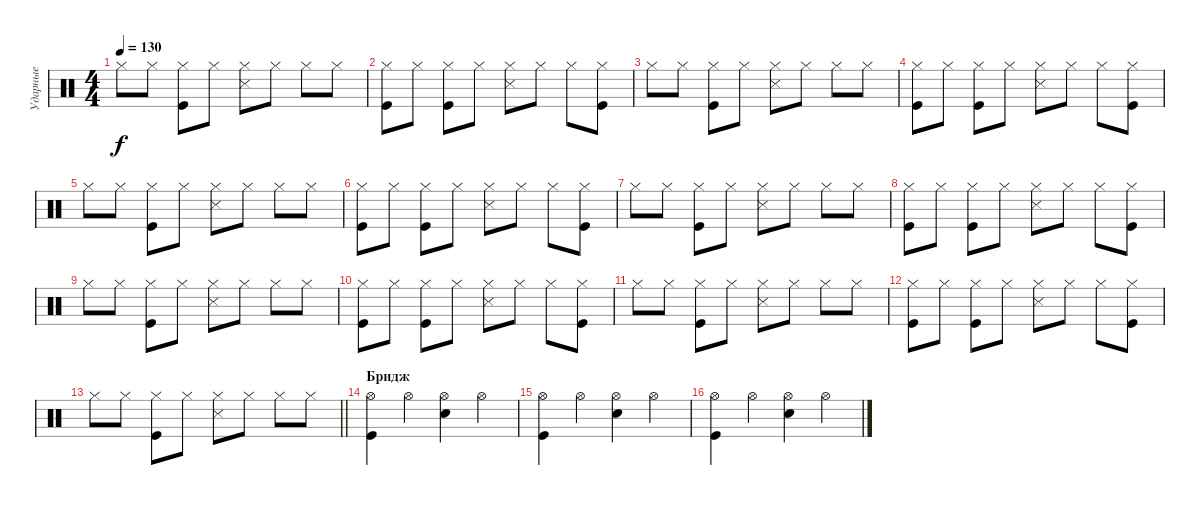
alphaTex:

\track ("Ударные" "Ударные") {instrument percussion}
\staff {score}
\articulation defaults
\ts (4 4)
\tempo 130
\clef neutral
\ks c "Hi-Hat (closed)".8{dy f} "Hi-Hat (closed)".8
("Hi-Hat (closed)" "Kick (hit)").8 "Hi-Hat (closed)".8 ("Hi-Hat (closed)" "Snare (side stick) 3").8 "Hi-Hat (closed)".8 "Hi-Hat (closed)".8 "Hi-Hat (closed)".8 |
("Hi-Hat (closed)" "Kick (hit)").8 "Hi-Hat (closed)".8 ("Hi-Hat (closed)" "Kick (hit)").8 "Hi-Hat (closed)".8 ("Hi-Hat (closed)" "Snare (side stick) 3").8 "Hi-Hat (closed)".8 "Hi-Hat (closed)".8 ("Hi-Hat (closed)" "Kick (hit)").8 |
"Hi-Hat (closed)".8 "Hi-Hat (closed)".8 ("Hi-Hat (closed)" "Kick (hit)").8 "Hi-Hat (closed)".8 ("Hi-Hat (closed)" "Snare (side stick) 3").8 "Hi-Hat (closed)".8 "Hi-Hat (closed)".8 "Hi-Hat (closed)".8 |
("Hi-Hat (closed)" "Kick (hit)").8 "Hi-Hat (closed)".8 ("Hi-Hat (closed)" "Kick (hit)").8 "Hi-Hat (closed)".8 ("Hi-Hat (closed)" "Snare (side stick) 3").8 "Hi-Hat (closed)".8 "Hi-Hat (closed)".8 ("Hi-Hat (closed)" "Kick (hit)").8 |
"Hi-Hat (closed)".8 "Hi-Hat (closed)".8 ("Hi-Hat (closed)" "Kick (hit)").8 "Hi-Hat (closed)".8 ("Hi-Hat (closed)" "Snare (side stick) 3").8 "Hi-Hat (closed)".8 "Hi-Hat (closed)".8 "Hi-Hat (closed)".8 |
("Hi-Hat (closed)" "Kick (hit)").8 "Hi-Hat (closed)".8 ("Hi-Hat (closed)" "Kick (hit)").8 "Hi-Hat (closed)".8 ("Hi-Hat (closed)" "Snare (side stick) 3").8 "Hi-Hat (closed)".8 "Hi-Hat (closed)".8 ("Hi-Hat (closed)" "Kick (hit)").8 |
"Hi-Hat (closed)".8 "Hi-Hat (closed)".8 ("Hi-Hat (closed)" "Kick (hit)").8 "Hi-Hat (closed)".8 ("Hi-Hat (closed)" "Snare (side stick) 3").8 "Hi-Hat (closed)".8 "Hi-Hat (closed)".8 "Hi-Hat (closed)".8 |
("Hi-Hat (closed)" "Kick (hit)").8 "Hi-Hat (closed)".8 ("Hi-Hat (closed)" "Kick (hit)").8 "Hi-Hat (closed)".8 ("Hi-Hat (closed)" "Snare (side stick) 3").8 "Hi-Hat (closed)".8 "Hi-Hat (closed)".8 ("Hi-Hat (closed)" "Kick (hit)").8 |
"Hi-Hat (closed)".8 "Hi-Hat (closed)".8 ("Hi-Hat (closed)" "Kick (hit)").8 "Hi-Hat (closed)".8 ("Hi-Hat (closed)" "Snare (side stick) 3").8 "Hi-Hat (closed)".8 "Hi-Hat (closed)".8 "Hi-Hat (closed)".8 |
("Hi-Hat (closed)" "Kick (hit)").8 "Hi-Hat (closed)".8 ("Hi-Hat (closed)" "Kick (hit)").8 "Hi-Hat (closed)".8 ("Hi-Hat (closed)" "Snare (side stick) 3").8 "Hi-Hat (closed)".8 "Hi-Hat (closed)".8 ("Hi-Hat (closed)" "Kick (hit)").8 |
"Hi-Hat (closed)".8 "Hi-Hat (closed)".8 ("Hi-Hat (closed)" "Kick (hit)").8 "Hi-Hat (closed)".8 ("Hi-Hat (closed)" "Snare (side stick) 3").8 "Hi-Hat (closed)".8 "Hi-Hat (closed)".8 "Hi-Hat (closed)".8 |
("Hi-Hat (closed)" "Kick (hit)").8 "Hi-Hat (closed)".8 ("Hi-Hat (closed)" "Kick (hit)").8 "Hi-Hat (closed)".8 ("Hi-Hat (closed)" "Snare (side stick) 3").8 "Hi-Hat (closed)".8 "Hi-Hat (closed)".8 ("Hi-Hat (closed)" "Kick (hit)").8 |
\barLineRight lightlight "Hi-Hat (closed)".8 "Hi-Hat (closed)".8
("Hi-Hat (closed)" "Kick (hit)").8 "Hi-Hat (closed)".8 ("Hi-Hat (closed)" "Snare (side stick) 3").8 "Hi-Hat (closed)".8 "Hi-Hat (closed)".8 "Hi-Hat (closed)".8 |
\section ("" "Бридж")
("Hi-Hat (open)" "Kick (hit)").4 "Hi-Hat (open)".4 ("Hi-Hat (open)" "Electric Snare (hit)").4 "Hi-Hat (open)".4 |
("Hi-Hat (open)" "Kick (hit)").4 "Hi-Hat (open)".4 ("Hi-Hat (open)" "Electric Snare (hit)").4 "Hi-Hat (open)".4 |
("Hi-Hat (open)" "Kick (hit)").4 "Hi-Hat (open)".4 ("Hi-Hat (open)" "Electric Snare (hit)").4 "Hi-Hat (open)".4
